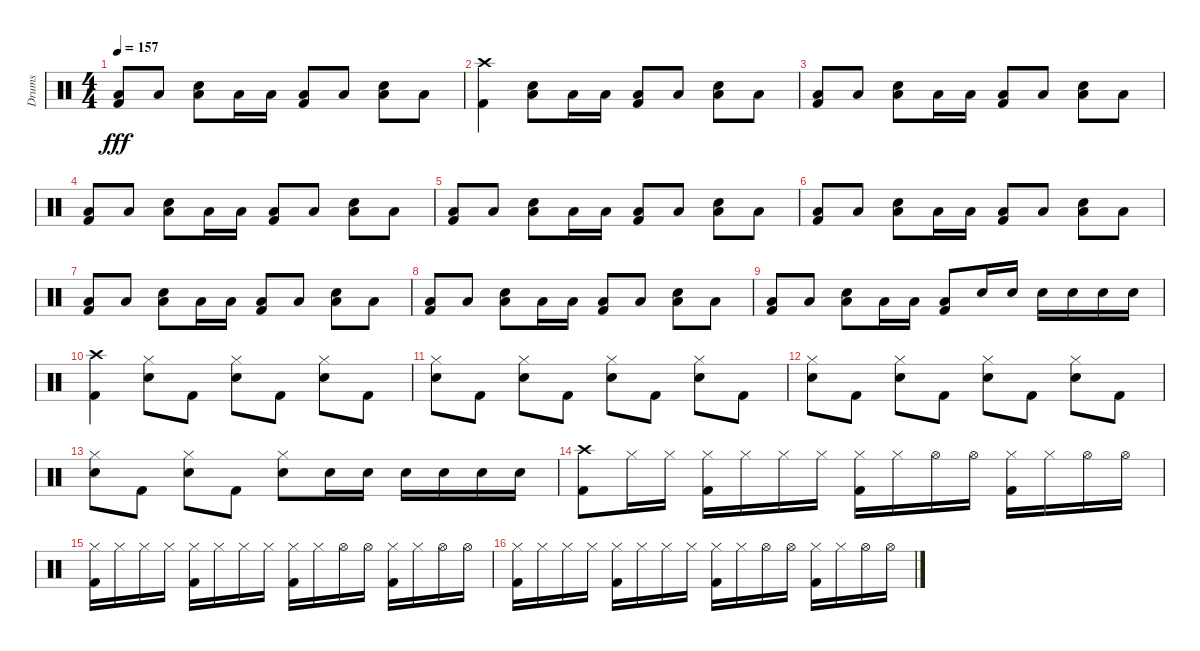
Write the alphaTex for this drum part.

\track ("Drums" "Drums") {instrument percussion}
\staff {score}
\articulation defaults
\ts (4 4)
\tempo 157
\clef neutral
\ks c
("Low Floor Tom (hit)" "Kick (hit) 2").8{dy fff} "Low Floor Tom (hit)".8 ("Low Floor Tom (hit)" "Snare (hit) 2").8 "Low Floor Tom (hit)".16 "Low Tom (hit)".16 ("Low Floor Tom (hit)" "Kick (hit) 2").8 "Low Floor Tom (hit)".8 ("Low Floor Tom (hit)" "Snare (hit) 2").8 "Low Floor Tom (hit)".8 |
("Crash high (hit)" "Kick (hit) 2").4 ("Low Floor Tom (hit)" "Snare (hit) 2").8 "Low Floor Tom (hit)".16 "Low Tom (hit)".16 ("Low Floor Tom (hit)" "Kick (hit) 2").8 "Low Floor Tom (hit)".8 ("Low Floor Tom (hit)" "Snare (hit) 2").8 "Low Floor Tom (hit)".8 |
("Low Floor Tom (hit)" "Kick (hit) 2").8 "Low Floor Tom (hit)".8 ("Low Floor Tom (hit)" "Snare (hit) 2").8 "Low Floor Tom (hit)".16 "Low Tom (hit)".16 ("Low Floor Tom (hit)" "Kick (hit) 2").8 "Low Floor Tom (hit)".8 ("Low Floor Tom (hit)" "Snare (hit) 2").8 "Low Floor Tom (hit)".8 |
("Low Floor Tom (hit)" "Kick (hit) 2").8 "Low Floor Tom (hit)".8 ("Low Floor Tom (hit)" "Snare (hit) 2").8 "Low Floor Tom (hit)".16 "Low Tom (hit)".16 ("Low Floor Tom (hit)" "Kick (hit) 2").8 "Low Floor Tom (hit)".8 ("Low Floor Tom (hit)" "Snare (hit) 2").8 "Low Floor Tom (hit)".8 |
("Low Floor Tom (hit)" "Kick (hit) 2").8 "Low Floor Tom (hit)".8 ("Low Floor Tom (hit)" "Snare (hit) 2").8 "Low Floor Tom (hit)".16 "Low Tom (hit)".16 ("Low Floor Tom (hit)" "Kick (hit) 2").8 "Low Floor Tom (hit)".8 ("Low Floor Tom (hit)" "Snare (hit) 2").8 "Low Floor Tom (hit)".8 |
("Low Floor Tom (hit)" "Kick (hit) 2").8 "Low Floor Tom (hit)".8 ("Low Floor Tom (hit)" "Snare (hit) 2").8 "Low Floor Tom (hit)".16 "Low Tom (hit)".16 ("Low Floor Tom (hit)" "Kick (hit) 2").8 "Low Floor Tom (hit)".8 ("Low Floor Tom (hit)" "Snare (hit) 2").8 "Low Floor Tom (hit)".8 |
("Low Floor Tom (hit)" "Kick (hit) 2").8 "Low Floor Tom (hit)".8 ("Low Floor Tom (hit)" "Snare (hit) 2").8 "Low Floor Tom (hit)".16 "Low Tom (hit)".16 ("Low Floor Tom (hit)" "Kick (hit) 2").8 "Low Floor Tom (hit)".8 ("Low Floor Tom (hit)" "Snare (hit) 2").8 "Low Floor Tom (hit)".8 |
("Low Floor Tom (hit)" "Kick (hit) 2").8 "Low Floor Tom (hit)".8 ("Low Floor Tom (hit)" "Snare (hit) 2").8 "Low Floor Tom (hit)".16 "Low Tom (hit)".16 ("Low Floor Tom (hit)" "Kick (hit) 2").8 "Low Floor Tom (hit)".8 ("Low Floor Tom (hit)" "Snare (hit) 2").8 "Low Floor Tom (hit)".8 |
("Low Floor Tom (hit)" "Kick (hit) 2").8 "Low Floor Tom (hit)".8 ("Low Floor Tom (hit)" "Snare (hit) 2").8 "Low Floor Tom (hit)".16 "Low Tom (hit)".16 ("Low Floor Tom (hit)" "Kick (hit) 2").8 "Snare (hit) 2".16 "Snare (hit) 2".16 "Snare (hit) 2".16 "Snare (hit) 2".16 "Snare (hit) 2".16 "Snare (hit) 2".16 |
("Crash high (hit)" "Kick (hit) 2").4 ("Hi-Hat (closed)" "Snare (hit) 2").8 "Kick (hit) 2".8 ("Hi-Hat (closed)" "Snare (hit) 2").8 "Kick (hit) 2".8 ("Hi-Hat (closed)" "Snare (hit) 2").8 "Kick (hit) 2".8 |
("Hi-Hat (closed)" "Snare (hit) 2").8 "Kick (hit) 2".8 ("Hi-Hat (closed)" "Snare (hit) 2").8 "Kick (hit) 2".8 ("Hi-Hat (closed)" "Snare (hit) 2").8 "Kick (hit) 2".8 ("Hi-Hat (closed)" "Snare (hit) 2").8 "Kick (hit) 2".8 |
("Hi-Hat (closed)" "Snare (hit) 2").8 "Kick (hit) 2".8 ("Hi-Hat (closed)" "Snare (hit) 2").8 "Kick (hit) 2".8 ("Hi-Hat (closed)" "Snare (hit) 2").8 "Kick (hit) 2".8 ("Hi-Hat (closed)" "Snare (hit) 2").8 "Kick (hit) 2".8 |
("Hi-Hat (closed)" "Snare (hit) 2").8 "Kick (hit) 2".8 ("Hi-Hat (closed)" "Snare (hit) 2").8 "Kick (hit) 2".8 ("Hi-Hat (closed)" "Snare (hit) 2").8 "Snare (hit) 2".16 "Snare (hit) 2".16 "Snare (hit) 2".16 "Snare (hit) 2".16 "Snare (hit) 2".16 "Snare (hit) 2".16 |
("Crash high (hit)" "Kick (hit) 2").8 "Hi-Hat (closed)".16 "Hi-Hat (closed)".16 ("Hi-Hat (closed)" "Kick (hit) 2").16 "Hi-Hat (closed)".16 "Hi-Hat (closed)".16 "Hi-Hat (closed)".16 ("Hi-Hat (closed)" "Kick (hit) 2").16 "Hi-Hat (closed)".16 "Hi-Hat (open)".16 "Hi-Hat (open)".16 ("Hi-Hat (closed)" "Kick (hit) 2").16 "Hi-Hat (closed)".16 "Hi-Hat (open)".16 "Hi-Hat (open)".16 |
("Hi-Hat (closed)" "Kick (hit) 2").16 "Hi-Hat (closed)".16 "Hi-Hat (closed)".16 "Hi-Hat (closed)".16 ("Hi-Hat (closed)" "Kick (hit) 2").16 "Hi-Hat (closed)".16 "Hi-Hat (closed)".16 "Hi-Hat (closed)".16 ("Hi-Hat (closed)" "Kick (hit) 2").16 "Hi-Hat (closed)".16 "Hi-Hat (open)".16 "Hi-Hat (open)".16 ("Hi-Hat (closed)" "Kick (hit) 2").16 "Hi-Hat (closed)".16 "Hi-Hat (open)".16 "Hi-Hat (open)".16 |
("Hi-Hat (closed)" "Kick (hit) 2").16 "Hi-Hat (closed)".16 "Hi-Hat (closed)".16 "Hi-Hat (closed)".16 ("Hi-Hat (closed)" "Kick (hit) 2").16 "Hi-Hat (closed)".16 "Hi-Hat (closed)".16 "Hi-Hat (closed)".16 ("Hi-Hat (closed)" "Kick (hit) 2").16 "Hi-Hat (closed)".16 "Hi-Hat (open)".16 "Hi-Hat (open)".16 ("Hi-Hat (closed)" "Kick (hit) 2").16 "Hi-Hat (closed)".16 "Hi-Hat (open)".16 "Hi-Hat (open)".16
